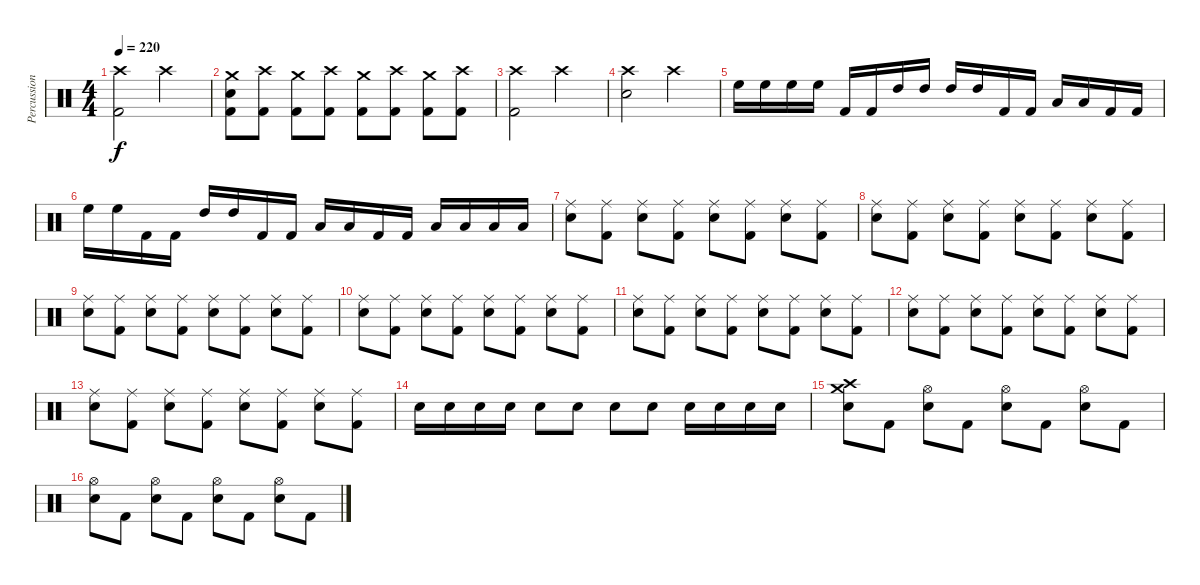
\track ("Percussion" "Percussion") {instrument percussion}
\staff {score}
\articulation defaults
\ts (4 4)
\tempo 220
\clef neutral
\ks c
("Crash high (hit)" "Kick (hit) 2").2{dy f} "Crash high (hit)".2 |
("Crash medium (hit)" "Snare (hit) 2" "Kick (hit) 2").8 ("Crash high (hit)" "Kick (hit) 2").8 ("Crash medium (hit)" "Kick (hit) 2").8 ("Crash high (hit)" "Kick (hit) 2").8 ("Crash medium (hit)" "Kick (hit) 2").8 ("Crash high (hit)" "Kick (hit) 2").8 ("Crash medium (hit)" "Kick (hit) 2").8 ("Crash high (hit)" "Kick (hit) 2").8 |
("Crash high (hit)" "Kick (hit) 2").2 "Crash high (hit)".2 |
("Crash high (hit)" "Snare (hit) 2").2 "Crash high (hit)".2 |
"High Floor Tom (hit)".16 "High Floor Tom (hit)".16 "High Floor Tom (hit)".16 "High Floor Tom (hit)".16 "Kick (hit) 2".16 "Kick (hit) 2".16 "High Tom (hit)".16 "High Tom (hit)".16 "High Tom (hit)".16 "High Tom (hit)".16 "Kick (hit) 2".16 "Kick (hit) 2".16 "Low Floor Tom (hit)".16 "Low Floor Tom (hit)".16 "Kick (hit) 2".16 "Kick (hit) 2".16 |
"High Floor Tom (hit)".16 "High Floor Tom (hit)".16 "Kick (hit) 2".16 "Kick (hit) 2".16 "High Tom (hit)".16 "High Tom (hit)".16 "Kick (hit) 2".16 "Kick (hit) 2".16 "Low Floor Tom (hit)".16 "Low Floor Tom (hit)".16 "Kick (hit) 2".16 "Kick (hit) 2".16 "Low Floor Tom (hit)".16 "Low Floor Tom (hit)".16 "Low Floor Tom (hit)".16 "Low Floor Tom (hit)".16 |
("Ride (middle)" "Snare (hit) 2").8 ("Ride (middle)" "Kick (hit) 2").8 ("Ride (middle)" "Snare (hit) 2").8 ("Ride (middle)" "Kick (hit) 2").8 ("Ride (middle)" "Snare (hit) 2").8 ("Ride (middle)" "Kick (hit) 2").8 ("Ride (middle)" "Snare (hit) 2").8 ("Ride (middle)" "Kick (hit) 2").8 |
("Ride (middle)" "Snare (hit) 2").8 ("Ride (middle)" "Kick (hit) 2").8 ("Ride (middle)" "Snare (hit) 2").8 ("Ride (middle)" "Kick (hit) 2").8 ("Ride (middle)" "Snare (hit) 2").8 ("Ride (middle)" "Kick (hit) 2").8 ("Ride (middle)" "Snare (hit) 2").8 ("Ride (middle)" "Kick (hit) 2").8 |
("Ride (middle)" "Snare (hit) 2").8 ("Ride (middle)" "Kick (hit) 2").8 ("Ride (middle)" "Snare (hit) 2").8 ("Ride (middle)" "Kick (hit) 2").8 ("Ride (middle)" "Snare (hit) 2").8 ("Ride (middle)" "Kick (hit) 2").8 ("Ride (middle)" "Snare (hit) 2").8 ("Ride (middle)" "Kick (hit) 2").8 |
("Ride (middle)" "Snare (hit) 2").8 ("Ride (middle)" "Kick (hit) 2").8 ("Ride (middle)" "Snare (hit) 2").8 ("Ride (middle)" "Kick (hit) 2").8 ("Ride (middle)" "Snare (hit) 2").8 ("Ride (middle)" "Kick (hit) 2").8 ("Ride (middle)" "Snare (hit) 2").8 ("Ride (middle)" "Kick (hit) 2").8 |
("Ride (middle)" "Snare (hit) 2").8 ("Ride (middle)" "Kick (hit) 2").8 ("Ride (middle)" "Snare (hit) 2").8 ("Ride (middle)" "Kick (hit) 2").8 ("Ride (middle)" "Snare (hit) 2").8 ("Ride (middle)" "Kick (hit) 2").8 ("Ride (middle)" "Snare (hit) 2").8 ("Ride (middle)" "Kick (hit) 2").8 |
("Ride (middle)" "Snare (hit) 2").8 ("Ride (middle)" "Kick (hit) 2").8 ("Ride (middle)" "Snare (hit) 2").8 ("Ride (middle)" "Kick (hit) 2").8 ("Ride (middle)" "Snare (hit) 2").8 ("Ride (middle)" "Kick (hit) 2").8 ("Ride (middle)" "Snare (hit) 2").8 ("Ride (middle)" "Kick (hit) 2").8 |
("Ride (middle)" "Snare (hit) 2").8 ("Ride (middle)" "Kick (hit) 2").8 ("Ride (middle)" "Snare (hit) 2").8 ("Ride (middle)" "Kick (hit) 2").8 ("Ride (middle)" "Snare (hit) 2").8 ("Ride (middle)" "Kick (hit) 2").8 ("Ride (middle)" "Snare (hit) 2").8 ("Ride (middle)" "Kick (hit) 2").8 |
"Snare (hit) 2".16 "Snare (hit) 2".16 "Snare (hit) 2".16 "Snare (hit) 2".16 "Snare (hit) 2".8 "Snare (hit) 2".8 "Snare (hit) 2".8 "Snare (hit) 2".8 "Snare (hit) 2".16 "Snare (hit) 2".16 "Snare (hit) 2".16 "Snare (hit) 2".16 |
("Crash medium (hit)" "Crash high (hit)" "Snare (hit) 2").8 "Kick (hit) 2".8 ("Hi-Hat (open)" "Snare (hit) 2").8 "Kick (hit) 2".8 ("Hi-Hat (open)" "Snare (hit) 2").8 "Kick (hit) 2".8 ("Hi-Hat (open)" "Snare (hit) 2").8 "Kick (hit) 2".8 |
("Hi-Hat (open)" "Snare (hit) 2").8 "Kick (hit) 2".8 ("Hi-Hat (open)" "Snare (hit) 2").8 "Kick (hit) 2".8 ("Hi-Hat (open)" "Snare (hit) 2").8 "Kick (hit) 2".8 ("Hi-Hat (open)" "Snare (hit) 2").8 "Kick (hit) 2".8
